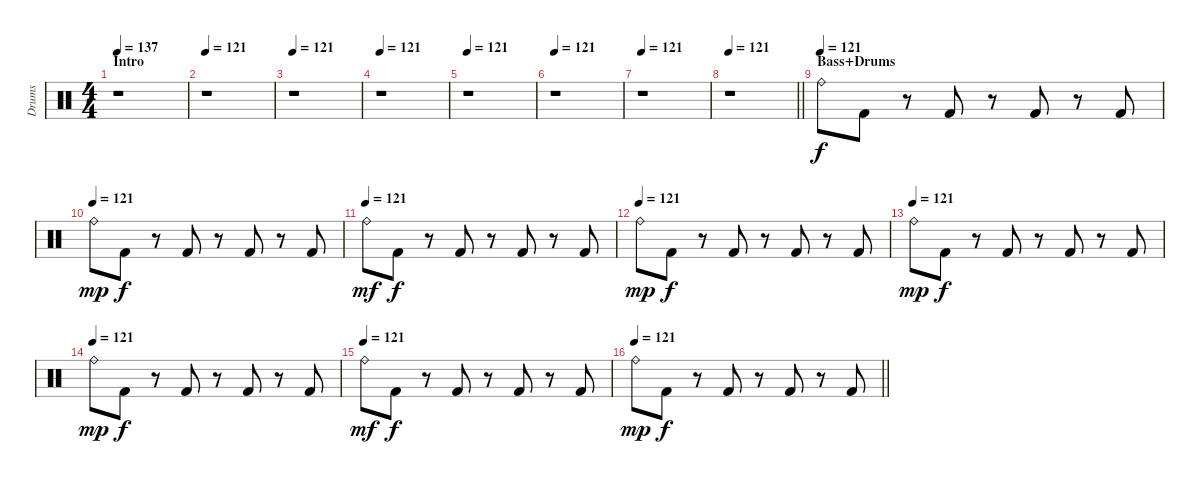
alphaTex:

\track ("Drums" "Drums") {instrument percussion}
\staff {score}
\articulation defaults
\ts (4 4)
\section ("" "Intro")
\tempo 137
\tempo 121
\tempo 137
\clef neutral
\ks c
r.1{dy f} |
\tempo 121
r.1 |
\tempo 121
r.1 |
\tempo 121
r.1 |
\tempo 121
r.1 |
\tempo 121
r.1 |
\tempo 121
r.1 |
\tempo 121
\barLineRight lightlight
r.1 |
\section ("" "Bass+Drums")
\tempo (121)
"Ride (bell)".8 "Kick (hit) 2".8 r.8 "Kick (hit) 2".8 r.8 "Kick (hit) 2".8 r.8 "Kick (hit) 2".8 |
\tempo (121)
"Ride (bell)".8{dy mp} "Kick (hit) 2".8{dy f} r.8 "Kick (hit) 2".8 r.8 "Kick (hit) 2".8 r.8 "Kick (hit) 2".8 |
\tempo (121)
"Ride (bell)".8{dy mf} "Kick (hit) 2".8{dy f} r.8 "Kick (hit) 2".8 r.8 "Kick (hit) 2".8 r.8 "Kick (hit) 2".8 |
\tempo (121)
"Ride (bell)".8{dy mp} "Kick (hit) 2".8{dy f} r.8 "Kick (hit) 2".8 r.8 "Kick (hit) 2".8 r.8 "Kick (hit) 2".8 |
\tempo (121)
"Ride (bell)".8{dy mp} "Kick (hit) 2".8{dy f} r.8 "Kick (hit) 2".8 r.8 "Kick (hit) 2".8 r.8 "Kick (hit) 2".8 |
\tempo (121)
"Ride (bell)".8{dy mp} "Kick (hit) 2".8{dy f} r.8 "Kick (hit) 2".8 r.8 "Kick (hit) 2".8 r.8 "Kick (hit) 2".8 |
\tempo (121)
"Ride (bell)".8{dy mf} "Kick (hit) 2".8{dy f} r.8 "Kick (hit) 2".8 r.8 "Kick (hit) 2".8 r.8 "Kick (hit) 2".8 |
\tempo 121
\barLineRight lightlight "Ride (bell)".8{dy mp} "Kick (hit) 2".8{dy f}
r.8 "Kick (hit) 2".8 r.8 "Kick (hit) 2".8 r.8 "Kick (hit) 2".8
